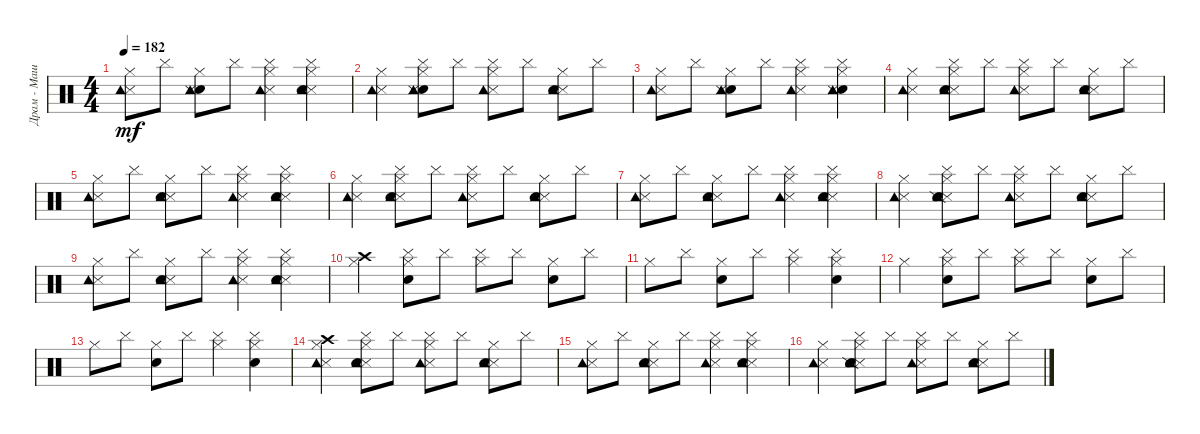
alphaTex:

\track ("Драм - Машина" "Драм - Маш") {instrument percussion}
\staff {score}
\articulation defaults
\ts (4 4)
\tempo 182
\clef neutral
\ks c
("Metronome (hit)" "Tambourine (hit)" "Hi-Hat (closed)").8{dy mf} "Cymbal (hit)".8 ("Metronome (bell)" "Metronome (hit)" "Hi-Hat (closed)" "Tambourine (hit)").8 "Cymbal (hit)".8 ("Metronome (hit)" "Cymbal (hit)" "Hi-Hat (closed)" "Tambourine (hit)").4 ("Metronome (hit)" "Metronome (bell)" "Cymbal (hit)" "Hi-Hat (closed)" "Tambourine (hit)").4 |
("Metronome (hit)" "Tambourine (hit)" "Hi-Hat (closed)").4 ("Metronome (bell)" "Metronome (hit)" "Cymbal (hit)" "Tambourine (hit)" "Hi-Hat (closed)").8 "Cymbal (hit)".8 ("Metronome (hit)" "Cymbal (hit)" "Hi-Hat (closed)" "Tambourine (hit)").8 "Cymbal (hit)".8 ("Metronome (hit)" "Metronome (bell)" "Tambourine (hit)" "Hi-Hat (closed)").8 "Cymbal (hit)".8 |
("Metronome (hit)" "Hi-Hat (closed)" "Tambourine (hit)").8 "Cymbal (hit)".8 ("Metronome (bell)" "Metronome (hit)" "Tambourine (hit)" "Hi-Hat (closed)").8 "Cymbal (hit)".8 ("Metronome (hit)" "Cymbal (hit)" "Hi-Hat (closed)" "Tambourine (hit)").4 ("Metronome (bell)" "Metronome (hit)" "Cymbal (hit)" "Hi-Hat (closed)" "Tambourine (hit)").4 |
("Metronome (hit)" "Hi-Hat (closed)" "Tambourine (hit)").4 ("Metronome (hit)" "Metronome (bell)" "Cymbal (hit)" "Tambourine (hit)" "Hi-Hat (closed)").8 "Cymbal (hit)".8 ("Metronome (hit)" "Cymbal (hit)" "Tambourine (hit)" "Hi-Hat (closed)").8 "Cymbal (hit)".8 ("Metronome (hit)" "Metronome (bell)" "Tambourine (hit)" "Hi-Hat (closed)").8 "Cymbal (hit)".8 |
("Metronome (hit)" "Tambourine (hit)" "Hi-Hat (closed)").8 "Cymbal (hit)".8 ("Metronome (hit)" "Metronome (bell)" "Hi-Hat (closed)" "Tambourine (hit)").8 "Cymbal (hit)".8 ("Metronome (hit)" "Cymbal (hit)" "Hi-Hat (closed)" "Tambourine (hit)").4 ("Metronome (hit)" "Metronome (bell)" "Cymbal (hit)" "Hi-Hat (closed)" "Tambourine (hit)").4 |
("Metronome (hit)" "Tambourine (hit)" "Hi-Hat (closed)").4 ("Metronome (hit)" "Metronome (bell)" "Cymbal (hit)" "Tambourine (hit)" "Hi-Hat (closed)").8 "Cymbal (hit)".8 ("Metronome (hit)" "Cymbal (hit)" "Hi-Hat (closed)" "Tambourine (hit)").8 "Cymbal (hit)".8 ("Metronome (hit)" "Metronome (bell)" "Tambourine (hit)" "Hi-Hat (closed)").8 "Cymbal (hit)".8 |
("Metronome (hit)" "Hi-Hat (closed)" "Tambourine (hit)").8 "Cymbal (hit)".8 ("Metronome (hit)" "Metronome (bell)" "Tambourine (hit)" "Hi-Hat (closed)").8 "Cymbal (hit)".8 ("Metronome (hit)" "Cymbal (hit)" "Hi-Hat (closed)" "Tambourine (hit)").4 ("Metronome (hit)" "Metronome (bell)" "Cymbal (hit)" "Hi-Hat (closed)" "Tambourine (hit)").4 |
("Metronome (hit)" "Hi-Hat (closed)" "Tambourine (hit)").4 ("Metronome (hit)" "Metronome (bell)" "Snare (side stick) 2" "Cymbal (hit)" "Tambourine (hit)" "Hi-Hat (closed)").8 "Cymbal (hit)".8 ("Metronome (hit)" "Cymbal (hit)" "Tambourine (hit)" "Hi-Hat (closed)").8 "Cymbal (hit)".8 ("Metronome (hit)" "Metronome (bell)" "Tambourine (hit)" "Hi-Hat (closed)").8 "Cymbal (hit)".8 |
("Metronome (hit)" "Tambourine (hit)" "Hi-Hat (closed)").8 "Cymbal (hit)".8 ("Metronome (hit)" "Metronome (bell)" "Hi-Hat (closed)" "Tambourine (hit)").8 "Cymbal (hit)".8 ("Metronome (hit)" "Cymbal (hit)" "Hi-Hat (closed)" "Tambourine (hit)").4 ("Metronome (hit)" "Metronome (bell)" "Cymbal (hit)" "Hi-Hat (closed)" "Tambourine (hit)").4 |
("Crash high (hit)" "Hi-Hat (closed)").4 ("Metronome (bell)" "Hi-Hat (closed)" "Cymbal (hit)").8 "Cymbal (hit)".8 ("Hi-Hat (closed)" "Cymbal (hit)").8 "Cymbal (hit)".8 ("Metronome (bell)" "Hi-Hat (closed)").8 "Cymbal (hit)".8 |
"Hi-Hat (closed)".8 "Cymbal (hit)".8 ("Metronome (bell)" "Hi-Hat (closed)").8 "Cymbal (hit)".8 ("Hi-Hat (closed)" "Cymbal (hit)").4 ("Metronome (bell)" "Hi-Hat (closed)" "Cymbal (hit)").4 |
"Hi-Hat (closed)".4 ("Metronome (bell)" "Hi-Hat (closed)" "Cymbal (hit)").8 "Cymbal (hit)".8 ("Hi-Hat (closed)" "Cymbal (hit)").8 "Cymbal (hit)".8 ("Metronome (bell)" "Hi-Hat (closed)").8 "Cymbal (hit)".8 |
"Hi-Hat (closed)".8 "Cymbal (hit)".8 ("Metronome (bell)" "Hi-Hat (closed)").8 "Cymbal (hit)".8 ("Hi-Hat (closed)" "Cymbal (hit)").4 ("Metronome (bell)" "Hi-Hat (closed)" "Cymbal (hit)").4 |
("Metronome (hit)" "Crash high (hit)" "Tambourine (hit)" "Hi-Hat (closed)").4 ("Metronome (hit)" "Metronome (bell)" "Cymbal (hit)" "Tambourine (hit)" "Hi-Hat (closed)").8 "Cymbal (hit)".8 ("Metronome (hit)" "Cymbal (hit)" "Hi-Hat (closed)" "Tambourine (hit)").8 "Cymbal (hit)".8 ("Metronome (hit)" "Metronome (bell)" "Tambourine (hit)" "Hi-Hat (closed)").8 "Cymbal (hit)".8 |
("Metronome (hit)" "Hi-Hat (closed)" "Tambourine (hit)").8 "Cymbal (hit)".8 ("Metronome (hit)" "Metronome (bell)" "Tambourine (hit)" "Hi-Hat (closed)").8 "Cymbal (hit)".8 ("Metronome (hit)" "Cymbal (hit)" "Hi-Hat (closed)" "Tambourine (hit)").4 ("Metronome (hit)" "Metronome (bell)" "Cymbal (hit)" "Hi-Hat (closed)" "Tambourine (hit)").4 |
("Metronome (hit)" "Hi-Hat (closed)" "Tambourine (hit)").4 ("Metronome (hit)" "Metronome (bell)" "Snare (side stick) 2" "Cymbal (hit)" "Tambourine (hit)" "Hi-Hat (closed)").8 "Cymbal (hit)".8 ("Metronome (hit)" "Cymbal (hit)" "Tambourine (hit)" "Hi-Hat (closed)").8 "Cymbal (hit)".8 ("Metronome (hit)" "Metronome (bell)" "Tambourine (hit)" "Hi-Hat (closed)").8 "Cymbal (hit)".8
